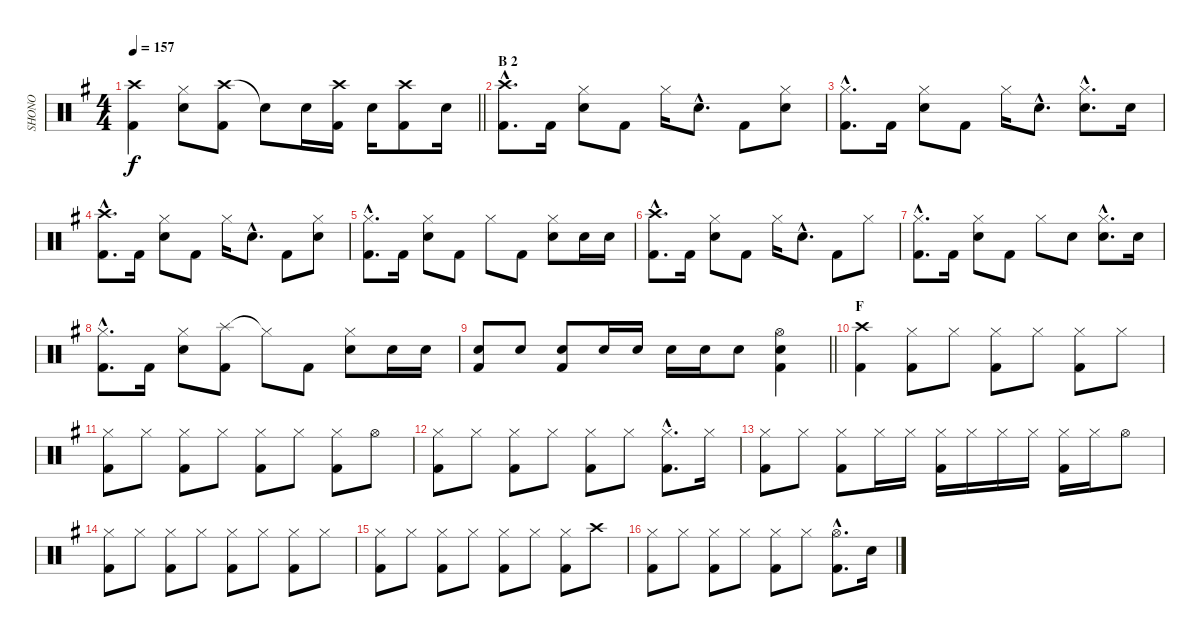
\track ("SHONO" "SHONO") {instrument percussion}
\staff {score}
\articulation defaults
\ts (4 4)
\tempo 157
\clef neutral
\barLineRight lightlight
\ks g
("Crash high (hit)" "Kick (hit) 2").4{dy f} ("Hi-Hat (closed)" "Snare (hit) 2").8 ("Crash high (hit)" "Kick (hit) 2").8 "Snare (hit)"{t}.8 "Snare (hit) 2".16 ("Crash high (hit)" "Kick (hit) 2").16 "Snare (hit) 2".16 ("Crash high (hit)" "Kick (hit) 2").8 "Snare (hit) 2".16 |
\section ("" "B 2")
("Crash high (hit)"{hac} "Kick (hit) 2"{hac}).8{d} "Kick (hit) 2".16 ("Hi-Hat (closed)" "Snare (hit) 2").8 "Kick (hit) 2".8 "Hi-Hat (closed)".16 "Snare (hit) 2"{hac}.8{d} "Kick (hit) 2".8 ("Hi-Hat (closed)" "Snare (hit) 2").8 |
("Hi-Hat (closed)"{hac} "Kick (hit) 2"{hac}).8{d} "Kick (hit) 2".16 ("Hi-Hat (closed)" "Snare (hit) 2").8 "Kick (hit) 2".8 "Hi-Hat (closed)".16 "Snare (hit) 2"{hac}.8{d} ("Hi-Hat (closed)"{hac} "Snare (hit) 2"{hac}).8{d} "Snare (hit) 2".16 |
("Crash high (hit)"{hac} "Kick (hit) 2"{hac}).8{d} "Kick (hit) 2".16 ("Hi-Hat (closed)" "Snare (hit) 2").8 "Kick (hit) 2".8 "Hi-Hat (closed)".16 "Snare (hit) 2"{hac}.8{d} "Kick (hit) 2".8 ("Hi-Hat (closed)" "Snare (hit) 2").8 |
("Hi-Hat (closed)"{hac} "Kick (hit) 2"{hac}).8{d} "Kick (hit) 2".16 ("Hi-Hat (closed)" "Snare (hit) 2").8 "Kick (hit) 2".8 "Hi-Hat (closed)".8 "Kick (hit) 2".8 ("Hi-Hat (closed)" "Snare (hit) 2").8 "Snare (hit) 2".16 "Snare (hit) 2".16 |
("Crash high (hit)"{hac} "Kick (hit) 2"{hac}).8{d} "Kick (hit) 2".16 ("Hi-Hat (closed)" "Snare (hit) 2").8 "Kick (hit) 2".8 "Hi-Hat (closed)".16 "Snare (hit) 2"{hac}.8{d} "Kick (hit) 2".8 "Hi-Hat (closed)".8 |
("Hi-Hat (closed)"{hac} "Kick (hit) 2"{hac}).8{d} "Kick (hit) 2".16 ("Hi-Hat (closed)" "Snare (hit) 2").8 "Kick (hit) 2".8 "Hi-Hat (closed)".8 "Snare (hit) 2".8 ("Hi-Hat (closed)"{hac} "Snare (hit) 2"{hac}).8{d} "Snare (hit) 2".16 |
("Hi-Hat (closed)"{hac} "Kick (hit) 2"{hac}).8{d} "Kick (hit) 2".16 ("Hi-Hat (closed)" "Snare (hit) 2").8 ("Splash (hit)" "Kick (hit) 2").8 "Hi-Hat (closed)"{t}.8 "Kick (hit) 2".8 ("Hi-Hat (closed)" "Snare (hit) 2").8 "Snare (hit) 2".16 "Snare (hit) 2".16 |
\barLineRight lightlight
("Kick (hit) 2" "Snare (hit) 2").8 "Snare (hit) 2".8 ("Kick (hit) 2" "Snare (hit) 2").8 "Snare (hit) 2".16 "Snare (hit) 2".16 "Snare (hit) 2".16 "Snare (hit) 2".16 "Snare (hit) 2".8 ("Hi-Hat (open)" "Snare (hit) 2" "Kick (hit) 2").4 |
\section ("" "F")
("Crash high (hit)" "Kick (hit) 2").4 ("Hi-Hat (closed)" "Kick (hit) 2").8 "Hi-Hat (closed)".8 ("Hi-Hat (closed)" "Kick (hit) 2").8 "Hi-Hat (closed)".8 ("Hi-Hat (closed)" "Kick (hit) 2").8 "Hi-Hat (closed)".8 |
("Hi-Hat (closed)" "Kick (hit) 2").8 "Hi-Hat (closed)".8 ("Hi-Hat (closed)" "Kick (hit) 2").8 "Hi-Hat (closed)".8 ("Hi-Hat (closed)" "Kick (hit) 2").8 "Hi-Hat (closed)".8 ("Hi-Hat (closed)" "Kick (hit) 2").8 "Hi-Hat (open)".8 |
("Hi-Hat (closed)" "Kick (hit) 2").8 "Hi-Hat (closed)".8 ("Hi-Hat (closed)" "Kick (hit) 2").8 "Hi-Hat (closed)".8 ("Hi-Hat (closed)" "Kick (hit) 2").8 "Hi-Hat (closed)".8 ("Hi-Hat (closed)"{hac} "Kick (hit) 2"{hac}).8{d} "Hi-Hat (closed)".16 |
("Hi-Hat (closed)" "Kick (hit) 2").8 "Hi-Hat (closed)".8 ("Hi-Hat (closed)" "Kick (hit) 2").8 "Hi-Hat (closed)".16 "Hi-Hat (closed)".16 ("Hi-Hat (closed)" "Kick (hit) 2").16 "Hi-Hat (closed)".16 "Hi-Hat (closed)".16 "Hi-Hat (closed)".16 ("Hi-Hat (closed)" "Kick (hit) 2").16 "Hi-Hat (closed)".16 "Hi-Hat (open)".8 |
("Hi-Hat (closed)" "Kick (hit) 2").8 "Hi-Hat (closed)".8 ("Hi-Hat (closed)" "Kick (hit) 2").8 "Hi-Hat (closed)".8 ("Hi-Hat (closed)" "Kick (hit) 2").8 "Hi-Hat (closed)".8 ("Hi-Hat (closed)" "Kick (hit) 2").8 "Hi-Hat (closed)".8 |
("Hi-Hat (closed)" "Kick (hit) 2").8 "Hi-Hat (closed)".8 ("Hi-Hat (closed)" "Kick (hit) 2").8 "Hi-Hat (closed)".8 ("Hi-Hat (closed)" "Kick (hit) 2").8 "Hi-Hat (closed)".8 ("Hi-Hat (closed)" "Kick (hit) 2").8 "Crash high (hit)".8 |
("Hi-Hat (closed)" "Kick (hit) 2").8 "Hi-Hat (closed)".8 ("Hi-Hat (closed)" "Kick (hit) 2").8 "Hi-Hat (closed)".8 ("Hi-Hat (closed)" "Kick (hit) 2").8 "Hi-Hat (closed)".8 ("Hi-Hat (open)"{hac} "Kick (hit) 2"{hac}).8{d} "Snare (hit) 2".16
